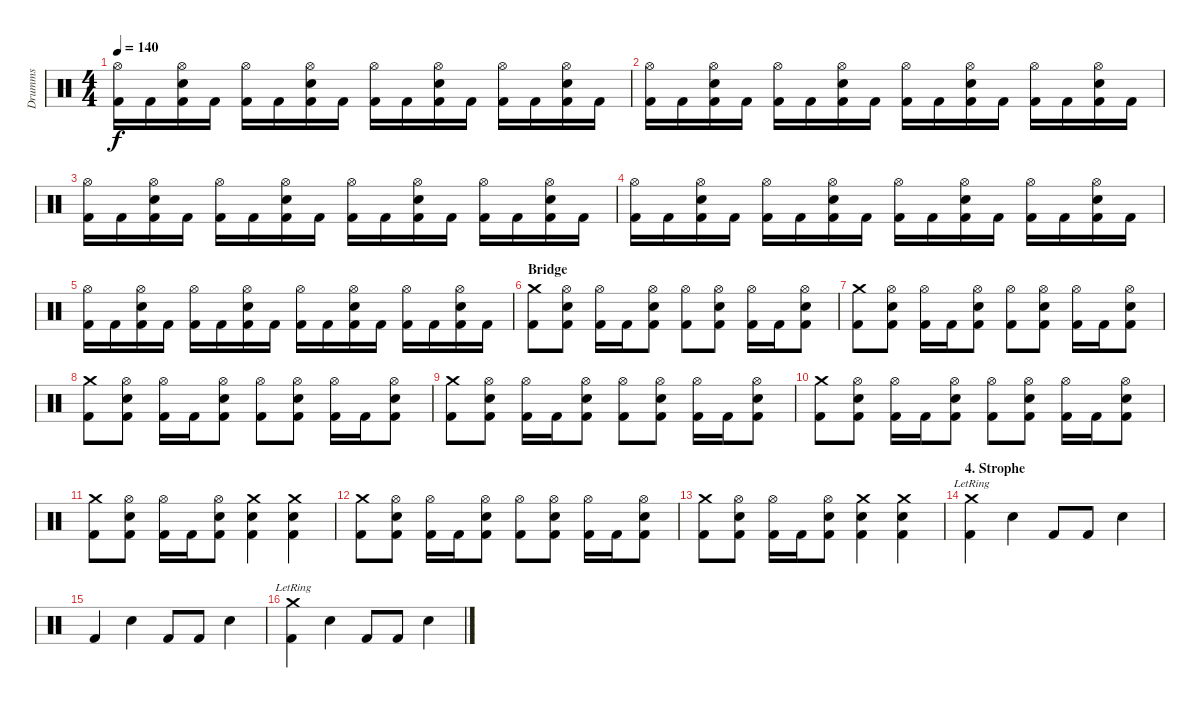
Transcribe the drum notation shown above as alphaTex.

\track ("Drumms" "Drumms") {instrument percussion}
\staff {score}
\articulation defaults
\ts (4 4)
\tempo 140
\clef neutral
\ks c
("Hi-Hat (open)" "Kick (hit) 2").16{dy f} "Kick (hit) 2".16 ("Hi-Hat (open)" "Electric Snare (hit)" "Kick (hit) 2").16 "Kick (hit) 2".16 ("Hi-Hat (open)" "Kick (hit) 2").16 "Kick (hit) 2".16 ("Hi-Hat (open)" "Electric Snare (hit)" "Kick (hit) 2").16 "Kick (hit) 2".16 ("Hi-Hat (open)" "Kick (hit) 2").16 "Kick (hit) 2".16 ("Hi-Hat (open)" "Electric Snare (hit)" "Kick (hit) 2").16 "Kick (hit) 2".16 ("Hi-Hat (open)" "Kick (hit) 2").16 "Kick (hit) 2".16 ("Hi-Hat (open)" "Electric Snare (hit)" "Kick (hit) 2").16 "Kick (hit) 2".16 |
("Hi-Hat (open)" "Kick (hit) 2").16 "Kick (hit) 2".16 ("Hi-Hat (open)" "Electric Snare (hit)" "Kick (hit) 2").16 "Kick (hit) 2".16 ("Hi-Hat (open)" "Kick (hit) 2").16 "Kick (hit) 2".16 ("Hi-Hat (open)" "Electric Snare (hit)" "Kick (hit) 2").16 "Kick (hit) 2".16 ("Hi-Hat (open)" "Kick (hit) 2").16 "Kick (hit) 2".16 ("Hi-Hat (open)" "Electric Snare (hit)" "Kick (hit) 2").16 "Kick (hit) 2".16 ("Hi-Hat (open)" "Kick (hit) 2").16 "Kick (hit) 2".16 ("Hi-Hat (open)" "Electric Snare (hit)" "Kick (hit) 2").16 "Kick (hit) 2".16 |
("Hi-Hat (open)" "Kick (hit) 2").16 "Kick (hit) 2".16 ("Hi-Hat (open)" "Electric Snare (hit)" "Kick (hit) 2").16 "Kick (hit) 2".16 ("Hi-Hat (open)" "Kick (hit) 2").16 "Kick (hit) 2".16 ("Hi-Hat (open)" "Electric Snare (hit)" "Kick (hit) 2").16 "Kick (hit) 2".16 ("Hi-Hat (open)" "Kick (hit) 2").16 "Kick (hit) 2".16 ("Hi-Hat (open)" "Electric Snare (hit)" "Kick (hit) 2").16 "Kick (hit) 2".16 ("Hi-Hat (open)" "Kick (hit) 2").16 "Kick (hit) 2".16 ("Hi-Hat (open)" "Electric Snare (hit)" "Kick (hit) 2").16 "Kick (hit) 2".16 |
("Hi-Hat (open)" "Kick (hit) 2").16 "Kick (hit) 2".16 ("Hi-Hat (open)" "Electric Snare (hit)" "Kick (hit) 2").16 "Kick (hit) 2".16 ("Hi-Hat (open)" "Kick (hit) 2").16 "Kick (hit) 2".16 ("Hi-Hat (open)" "Electric Snare (hit)" "Kick (hit) 2").16 "Kick (hit) 2".16 ("Hi-Hat (open)" "Kick (hit) 2").16 "Kick (hit) 2".16 ("Hi-Hat (open)" "Electric Snare (hit)" "Kick (hit) 2").16 "Kick (hit) 2".16 ("Hi-Hat (open)" "Kick (hit) 2").16 "Kick (hit) 2".16 ("Hi-Hat (open)" "Electric Snare (hit)" "Kick (hit) 2").16 "Kick (hit) 2".16 |
("Hi-Hat (open)" "Kick (hit) 2").16 "Kick (hit) 2".16 ("Hi-Hat (open)" "Electric Snare (hit)" "Kick (hit) 2").16 "Kick (hit) 2".16 ("Hi-Hat (open)" "Kick (hit) 2").16 "Kick (hit) 2".16 ("Hi-Hat (open)" "Electric Snare (hit)" "Kick (hit) 2").16 "Kick (hit) 2".16 ("Hi-Hat (open)" "Kick (hit) 2").16 "Kick (hit) 2".16 ("Hi-Hat (open)" "Electric Snare (hit)" "Kick (hit) 2").16 "Kick (hit) 2".16 ("Hi-Hat (open)" "Kick (hit) 2").16 "Kick (hit) 2".16 ("Hi-Hat (open)" "Electric Snare (hit)" "Kick (hit) 2").16 "Kick (hit) 2".16 |
\section ("" "Bridge")
("Crash medium (hit)" "Kick (hit) 2").8 ("Hi-Hat (open)" "Electric Snare (hit)" "Kick (hit) 2").8 ("Hi-Hat (open)" "Kick (hit) 2").16 "Kick (hit) 2".16 ("Hi-Hat (open)" "Electric Snare (hit)" "Kick (hit) 2").8 ("Hi-Hat (open)" "Kick (hit) 2").8 ("Hi-Hat (open)" "Electric Snare (hit)" "Kick (hit) 2").8 ("Hi-Hat (open)" "Kick (hit) 2").16 "Kick (hit) 2".16 ("Hi-Hat (open)" "Electric Snare (hit)" "Kick (hit) 2").8 |
("Crash medium (hit)" "Kick (hit) 2").8 ("Hi-Hat (open)" "Electric Snare (hit)" "Kick (hit) 2").8 ("Hi-Hat (open)" "Kick (hit) 2").16 "Kick (hit) 2".16 ("Hi-Hat (open)" "Electric Snare (hit)" "Kick (hit) 2").8 ("Hi-Hat (open)" "Kick (hit) 2").8 ("Hi-Hat (open)" "Electric Snare (hit)" "Kick (hit) 2").8 ("Hi-Hat (open)" "Kick (hit) 2").16 "Kick (hit) 2".16 ("Hi-Hat (open)" "Electric Snare (hit)" "Kick (hit) 2").8 |
("Crash medium (hit)" "Kick (hit) 2").8 ("Hi-Hat (open)" "Electric Snare (hit)" "Kick (hit) 2").8 ("Hi-Hat (open)" "Kick (hit) 2").16 "Kick (hit) 2".16 ("Hi-Hat (open)" "Electric Snare (hit)" "Kick (hit) 2").8 ("Hi-Hat (open)" "Kick (hit) 2").8 ("Hi-Hat (open)" "Electric Snare (hit)" "Kick (hit) 2").8 ("Hi-Hat (open)" "Kick (hit) 2").16 "Kick (hit) 2".16 ("Hi-Hat (open)" "Electric Snare (hit)" "Kick (hit) 2").8 |
("Crash medium (hit)" "Kick (hit) 2").8 ("Hi-Hat (open)" "Electric Snare (hit)" "Kick (hit) 2").8 ("Hi-Hat (open)" "Kick (hit) 2").16 "Kick (hit) 2".16 ("Hi-Hat (open)" "Electric Snare (hit)" "Kick (hit) 2").8 ("Hi-Hat (open)" "Kick (hit) 2").8 ("Hi-Hat (open)" "Electric Snare (hit)" "Kick (hit) 2").8 ("Hi-Hat (open)" "Kick (hit) 2").16 "Kick (hit) 2".16 ("Hi-Hat (open)" "Electric Snare (hit)" "Kick (hit) 2").8 |
("Crash medium (hit)" "Kick (hit) 2").8 ("Hi-Hat (open)" "Electric Snare (hit)" "Kick (hit) 2").8 ("Hi-Hat (open)" "Kick (hit) 2").16 "Kick (hit) 2".16 ("Hi-Hat (open)" "Electric Snare (hit)" "Kick (hit) 2").8 ("Hi-Hat (open)" "Kick (hit) 2").8 ("Hi-Hat (open)" "Electric Snare (hit)" "Kick (hit) 2").8 ("Hi-Hat (open)" "Kick (hit) 2").16 "Kick (hit) 2".16 ("Hi-Hat (open)" "Electric Snare (hit)" "Kick (hit) 2").8 |
("Crash medium (hit)" "Kick (hit) 2").8 ("Hi-Hat (open)" "Electric Snare (hit)" "Kick (hit) 2").8 ("Hi-Hat (open)" "Kick (hit) 2").16 "Kick (hit) 2".16 ("Hi-Hat (open)" "Electric Snare (hit)" "Kick (hit) 2").8 ("Crash medium (hit)" "Electric Snare (hit)" "Kick (hit) 2").4 ("Crash medium (hit)" "Electric Snare (hit)" "Kick (hit) 2").4 |
("Crash medium (hit)" "Kick (hit) 2").8 ("Hi-Hat (open)" "Electric Snare (hit)" "Kick (hit) 2").8 ("Hi-Hat (open)" "Kick (hit) 2").16 "Kick (hit) 2".16 ("Hi-Hat (open)" "Electric Snare (hit)" "Kick (hit) 2").8 ("Hi-Hat (open)" "Kick (hit) 2").8 ("Hi-Hat (open)" "Electric Snare (hit)" "Kick (hit) 2").8 ("Hi-Hat (open)" "Kick (hit) 2").16 "Kick (hit) 2".16 ("Hi-Hat (open)" "Electric Snare (hit)" "Kick (hit) 2").8 |
("Crash medium (hit)" "Kick (hit) 2").8 ("Hi-Hat (open)" "Electric Snare (hit)" "Kick (hit) 2").8 ("Hi-Hat (open)" "Kick (hit) 2").16 "Kick (hit) 2".16 ("Hi-Hat (open)" "Electric Snare (hit)" "Kick (hit) 2").8 ("Crash medium (hit)" "Electric Snare (hit)" "Kick (hit) 2").4 ("Crash medium (hit)" "Electric Snare (hit)" "Kick (hit) 2").4 |
\section ("" "4. Strophe")
("Crash medium (hit)"{lr} "Kick (hit) 2").4 "Electric Snare (hit)".4 "Kick (hit) 2".8 "Kick (hit) 2".8 "Electric Snare (hit)".4 |
"Kick (hit) 2".4 "Electric Snare (hit)".4 "Kick (hit) 2".8 "Kick (hit) 2".8 "Electric Snare (hit)".4 |
("Crash medium (hit)"{lr} "Kick (hit) 2").4 "Electric Snare (hit)".4 "Kick (hit) 2".8 "Kick (hit) 2".8 "Electric Snare (hit)".4
